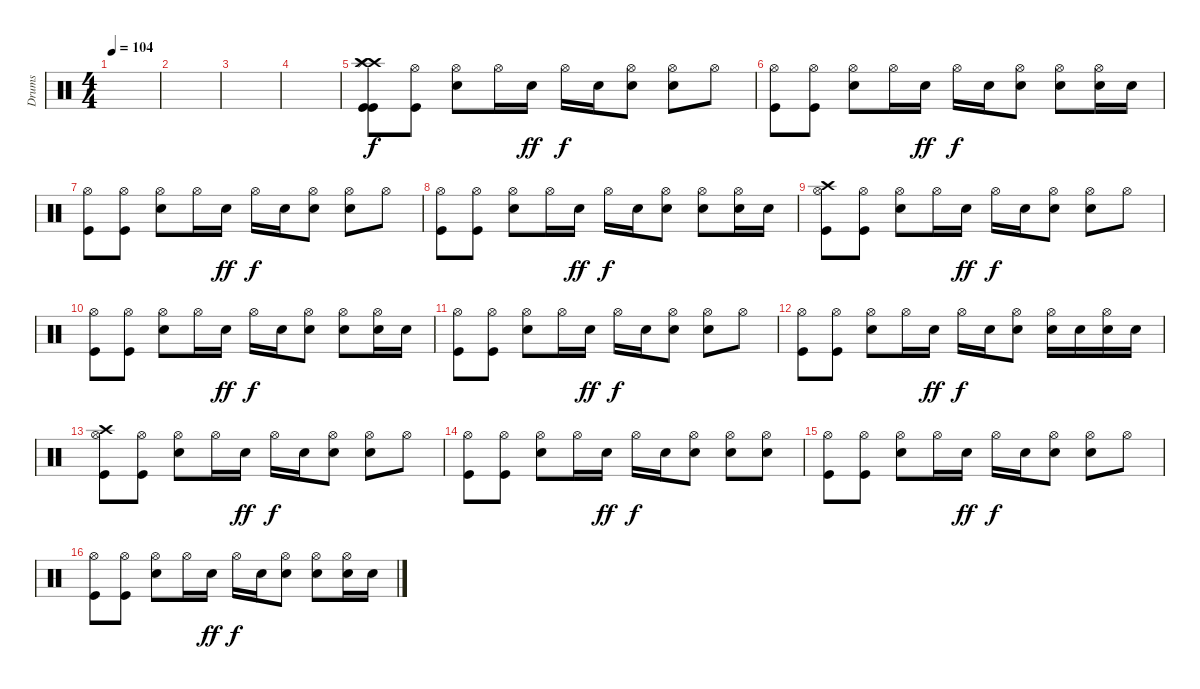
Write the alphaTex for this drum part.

\track ("Drums" "Drums") {instrument percussion}
\staff {score}
\articulation defaults
\ts (4 4)
\tempo 104
\clef neutral
\ks c
|
|
|
|
("Crash high (hit)" "Crash high (hit)" "Splash (hit)" "Kick (hit)" "Kick (hit)").8 ("Hi-Hat (open)" "Kick (hit)").8{dy f} ("Hi-Hat (open)" "Snare (hit) 2").8 "Hi-Hat (open)".16 "Snare (hit) 2".16{dy ff} "Hi-Hat (open)".16{dy f} "Snare (hit) 2".16 ("Hi-Hat (open)" "Snare (hit) 2").8 ("Hi-Hat (open)" "Snare (hit) 2").8 "Hi-Hat (open)".8 |
("Hi-Hat (open)" "Kick (hit)").8 ("Hi-Hat (open)" "Kick (hit)").8 ("Hi-Hat (open)" "Snare (hit) 2").8 "Hi-Hat (open)".16 "Snare (hit) 2".16{dy ff} "Hi-Hat (open)".16{dy f} "Snare (hit) 2".16 ("Hi-Hat (open)" "Snare (hit) 2").8 ("Hi-Hat (open)" "Snare (hit) 2").8 ("Hi-Hat (open)" "Snare (hit) 2").16 "Snare (hit) 2".16 |
("Hi-Hat (open)" "Kick (hit)").8 ("Hi-Hat (open)" "Kick (hit)").8 ("Hi-Hat (open)" "Snare (hit) 2").8 "Hi-Hat (open)".16 "Snare (hit) 2".16{dy ff} "Hi-Hat (open)".16{dy f} "Snare (hit) 2".16 ("Hi-Hat (open)" "Snare (hit) 2").8 ("Hi-Hat (open)" "Snare (hit) 2").8 "Hi-Hat (open)".8 |
("Hi-Hat (open)" "Kick (hit)").8 ("Hi-Hat (open)" "Kick (hit)").8 ("Hi-Hat (open)" "Snare (hit) 2").8 "Hi-Hat (open)".16 "Snare (hit) 2".16{dy ff} "Hi-Hat (open)".16{dy f} "Snare (hit) 2".16 ("Hi-Hat (open)" "Snare (hit) 2").8 ("Hi-Hat (open)" "Snare (hit) 2").8 ("Hi-Hat (open)" "Snare (hit) 2").16 "Snare (hit) 2".16 |
("Crash high (hit)" "Hi-Hat (open)" "Kick (hit)").8 ("Hi-Hat (open)" "Kick (hit)").8 ("Hi-Hat (open)" "Snare (hit) 2").8 "Hi-Hat (open)".16 "Snare (hit) 2".16{dy ff} "Hi-Hat (open)".16{dy f} "Snare (hit) 2".16 ("Hi-Hat (open)" "Snare (hit) 2").8 ("Hi-Hat (open)" "Snare (hit) 2").8 "Hi-Hat (open)".8 |
("Hi-Hat (open)" "Kick (hit)").8 ("Hi-Hat (open)" "Kick (hit)").8 ("Hi-Hat (open)" "Snare (hit) 2").8 "Hi-Hat (open)".16 "Snare (hit) 2".16{dy ff} "Hi-Hat (open)".16{dy f} "Snare (hit) 2".16 ("Hi-Hat (open)" "Snare (hit) 2").8 ("Hi-Hat (open)" "Snare (hit) 2").8 ("Hi-Hat (open)" "Snare (hit) 2").16 "Snare (hit) 2".16 |
("Hi-Hat (open)" "Kick (hit)").8 ("Hi-Hat (open)" "Kick (hit)").8 ("Hi-Hat (open)" "Snare (hit) 2").8 "Hi-Hat (open)".16 "Snare (hit) 2".16{dy ff} "Hi-Hat (open)".16{dy f} "Snare (hit) 2".16 ("Hi-Hat (open)" "Snare (hit) 2").8 ("Hi-Hat (open)" "Snare (hit) 2").8 "Hi-Hat (open)".8 |
("Hi-Hat (open)" "Kick (hit)").8 ("Hi-Hat (open)" "Kick (hit)").8 ("Hi-Hat (open)" "Snare (hit) 2").8 "Hi-Hat (open)".16 "Snare (hit) 2".16{dy ff} "Hi-Hat (open)".16{dy f} "Snare (hit) 2".16 ("Hi-Hat (open)" "Snare (hit) 2").8 ("Hi-Hat (open)" "Snare (hit) 2").16 "Snare (hit) 2".16 ("Hi-Hat (open)" "Snare (hit) 2").16 "Snare (hit) 2".16 |
("Crash high (hit)" "Hi-Hat (open)" "Kick (hit)").8 ("Hi-Hat (open)" "Kick (hit)").8 ("Hi-Hat (open)" "Snare (hit) 2").8 "Hi-Hat (open)".16 "Snare (hit) 2".16{dy ff} "Hi-Hat (open)".16{dy f} "Snare (hit) 2".16 ("Hi-Hat (open)" "Snare (hit) 2").8 ("Hi-Hat (open)" "Snare (hit) 2").8 "Hi-Hat (open)".8 |
("Hi-Hat (open)" "Kick (hit)").8 ("Hi-Hat (open)" "Kick (hit)").8 ("Hi-Hat (open)" "Snare (hit) 2").8 "Hi-Hat (open)".16 "Snare (hit) 2".16{dy ff} "Hi-Hat (open)".16{dy f} "Snare (hit) 2".16 ("Hi-Hat (open)" "Snare (hit) 2").8 ("Hi-Hat (open)" "Snare (hit) 2").8 ("Hi-Hat (open)" "Snare (hit) 2").8 |
("Hi-Hat (open)" "Kick (hit)").8 ("Hi-Hat (open)" "Kick (hit)").8 ("Hi-Hat (open)" "Snare (hit) 2").8 "Hi-Hat (open)".16 "Snare (hit) 2".16{dy ff} "Hi-Hat (open)".16{dy f} "Snare (hit) 2".16 ("Hi-Hat (open)" "Snare (hit) 2").8 ("Hi-Hat (open)" "Snare (hit) 2").8 "Hi-Hat (open)".8 |
("Hi-Hat (open)" "Kick (hit)").8 ("Hi-Hat (open)" "Kick (hit)").8 ("Hi-Hat (open)" "Snare (hit) 2").8 "Hi-Hat (open)".16 "Snare (hit) 2".16{dy ff} "Hi-Hat (open)".16{dy f} "Snare (hit) 2".16 ("Hi-Hat (open)" "Snare (hit) 2").8 ("Hi-Hat (open)" "Snare (hit) 2").8 ("Hi-Hat (open)" "Snare (hit) 2").16 "Snare (hit) 2".16
